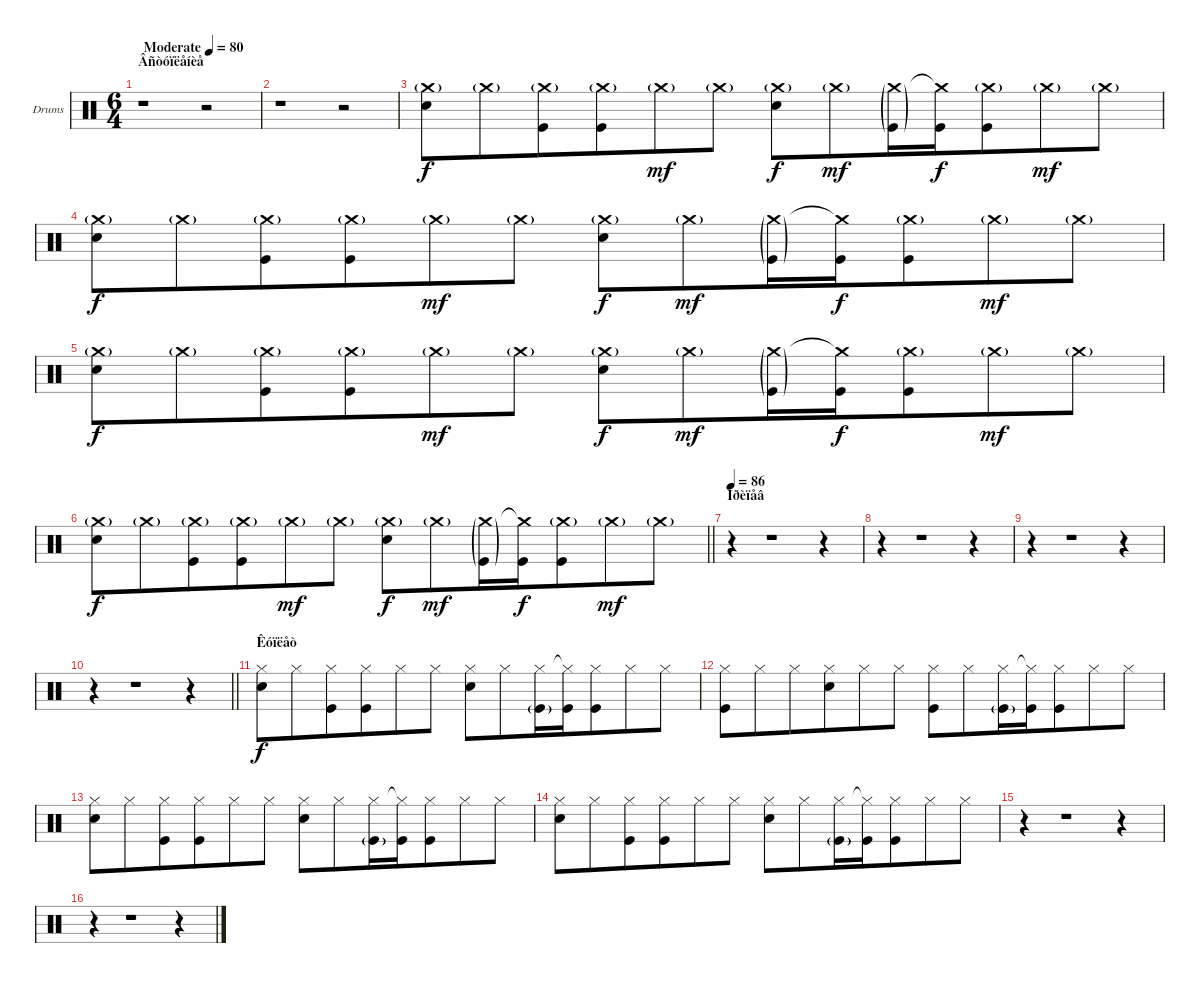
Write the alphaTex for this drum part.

\bracketExtendMode groupsimilarinstruments
\firstSystemTrackNameOrientation horizontal
\otherSystemsTrackNameOrientation horizontal
\track ("Drumkit" "Drums") {instrument percussion}
\staff {score}
\articulation defaults
\ts (6 4)
\beaming (8 6 6)
\section ("" "Âñòóïëåíèå")
\tempo (80 "Moderate")
\clef neutral
\ks c
r.1{dy f} r.2 |
r.1 r.2 |
("Snare (hit) 2" "Crash medium (hit)"{g}).8 "Crash medium (hit)"{g}.8 ("Kick (hit)" "Crash medium (hit)"{g}).8 ("Kick (hit)" "Crash medium (hit)"{g}).8 "Crash medium (hit)"{g}.8{dy mf} "Crash medium (hit)"{g}.8 ("Snare (hit) 2" "Crash medium (hit)"{g}).8{dy f} "Crash medium (hit)"{g}.8{dy mf} ("Kick (hit)"{g} "Crash medium (hit)"{g}).16 ("Kick (hit)" "Crash medium (hit)"{t}).16{dy f} ("Kick (hit)" "Crash medium (hit)"{g}).8 "Crash medium (hit)"{g}.8{dy mf} "Crash medium (hit)"{g}.8 |
("Snare (hit) 2" "Crash medium (hit)"{g}).8{dy f} "Crash medium (hit)"{g}.8 ("Kick (hit)" "Crash medium (hit)"{g}).8 ("Kick (hit)" "Crash medium (hit)"{g}).8 "Crash medium (hit)"{g}.8{dy mf} "Crash medium (hit)"{g}.8 ("Snare (hit) 2" "Crash medium (hit)"{g}).8{dy f} "Crash medium (hit)"{g}.8{dy mf} ("Kick (hit)"{g} "Crash medium (hit)"{g}).16 ("Kick (hit)" "Crash medium (hit)"{t}).16{dy f} ("Kick (hit)" "Crash medium (hit)"{g}).8 "Crash medium (hit)"{g}.8{dy mf} "Crash medium (hit)"{g}.8 |
("Snare (hit) 2" "Crash medium (hit)"{g}).8{dy f} "Crash medium (hit)"{g}.8 ("Kick (hit)" "Crash medium (hit)"{g}).8 ("Kick (hit)" "Crash medium (hit)"{g}).8 "Crash medium (hit)"{g}.8{dy mf} "Crash medium (hit)"{g}.8 ("Snare (hit) 2" "Crash medium (hit)"{g}).8{dy f} "Crash medium (hit)"{g}.8{dy mf} ("Kick (hit)"{g} "Crash medium (hit)"{g}).16 ("Kick (hit)" "Crash medium (hit)"{t}).16{dy f} ("Kick (hit)" "Crash medium (hit)"{g}).8 "Crash medium (hit)"{g}.8{dy mf} "Crash medium (hit)"{g}.8 |
\barLineRight lightlight
("Snare (hit) 2" "Crash medium (hit)"{g}).8{dy f} "Crash medium (hit)"{g}.8 ("Kick (hit)" "Crash medium (hit)"{g}).8 ("Kick (hit)" "Crash medium (hit)"{g}).8 "Crash medium (hit)"{g}.8{dy mf} "Crash medium (hit)"{g}.8 ("Snare (hit) 2" "Crash medium (hit)"{g}).8{dy f} "Crash medium (hit)"{g}.8{dy mf} ("Kick (hit)"{g} "Crash medium (hit)"{g}).16 ("Kick (hit)" "Crash medium (hit)"{t}).16{dy f} ("Kick (hit)" "Crash medium (hit)"{g}).8 "Crash medium (hit)"{g}.8{dy mf} "Crash medium (hit)"{g}.8 |
\section ("" "Ïðèïåâ")
\tempo 86
r.4 r.1 r.4 |
r.4 r.1 r.4 |
r.4 r.1 r.4 |
\barLineRight lightlight
r.4 r.1 r.4 |
\section ("" "Êóïëåò")
("Snare (hit) 2" "Hi-Hat (closed)").8{dy f} "Hi-Hat (closed)".8 ("Kick (hit)" "Hi-Hat (closed)").8 ("Kick (hit)" "Hi-Hat (closed)").8 "Hi-Hat (closed)".8 "Hi-Hat (closed)".8 ("Snare (hit) 2" "Hi-Hat (closed)").8 "Hi-Hat (closed)".8 ("Kick (hit)"{g} "Hi-Hat (closed)").16 ("Kick (hit)" "Hi-Hat (closed)"{t}).16 ("Kick (hit)" "Hi-Hat (closed)").8 "Hi-Hat (closed)".8 "Hi-Hat (closed)".8 |
("Kick (hit)" "Hi-Hat (closed)").8 "Hi-Hat (closed)".8 "Hi-Hat (closed)".8 ("Snare (hit) 2" "Hi-Hat (closed)").8 "Hi-Hat (closed)".8 "Hi-Hat (closed)".8 ("Kick (hit)" "Hi-Hat (closed)").8 "Hi-Hat (closed)".8 ("Kick (hit)"{g} "Hi-Hat (closed)").16 ("Kick (hit)" "Hi-Hat (closed)"{t}).16 ("Kick (hit)" "Hi-Hat (closed)").8 "Hi-Hat (closed)".8 "Hi-Hat (closed)".8 |
("Snare (hit) 2" "Hi-Hat (closed)").8 "Hi-Hat (closed)".8 ("Kick (hit)" "Hi-Hat (closed)").8 ("Kick (hit)" "Hi-Hat (closed)").8 "Hi-Hat (closed)".8 "Hi-Hat (closed)".8 ("Snare (hit) 2" "Hi-Hat (closed)").8 "Hi-Hat (closed)".8 ("Kick (hit)"{g} "Hi-Hat (closed)").16 ("Kick (hit)" "Hi-Hat (closed)"{t}).16 ("Kick (hit)" "Hi-Hat (closed)").8 "Hi-Hat (closed)".8 "Hi-Hat (closed)".8 |
("Snare (hit) 2" "Hi-Hat (closed)").8 "Hi-Hat (closed)".8 ("Kick (hit)" "Hi-Hat (closed)").8 ("Kick (hit)" "Hi-Hat (closed)").8 "Hi-Hat (closed)".8 "Hi-Hat (closed)".8 ("Snare (hit) 2" "Hi-Hat (closed)").8 "Hi-Hat (closed)".8 ("Kick (hit)"{g} "Hi-Hat (closed)").16 ("Kick (hit)" "Hi-Hat (closed)"{t}).16 ("Kick (hit)" "Hi-Hat (closed)").8 "Hi-Hat (closed)".8 "Hi-Hat (closed)".8 |
r.4 r.1 r.4 |
r.4 r.1 r.4
